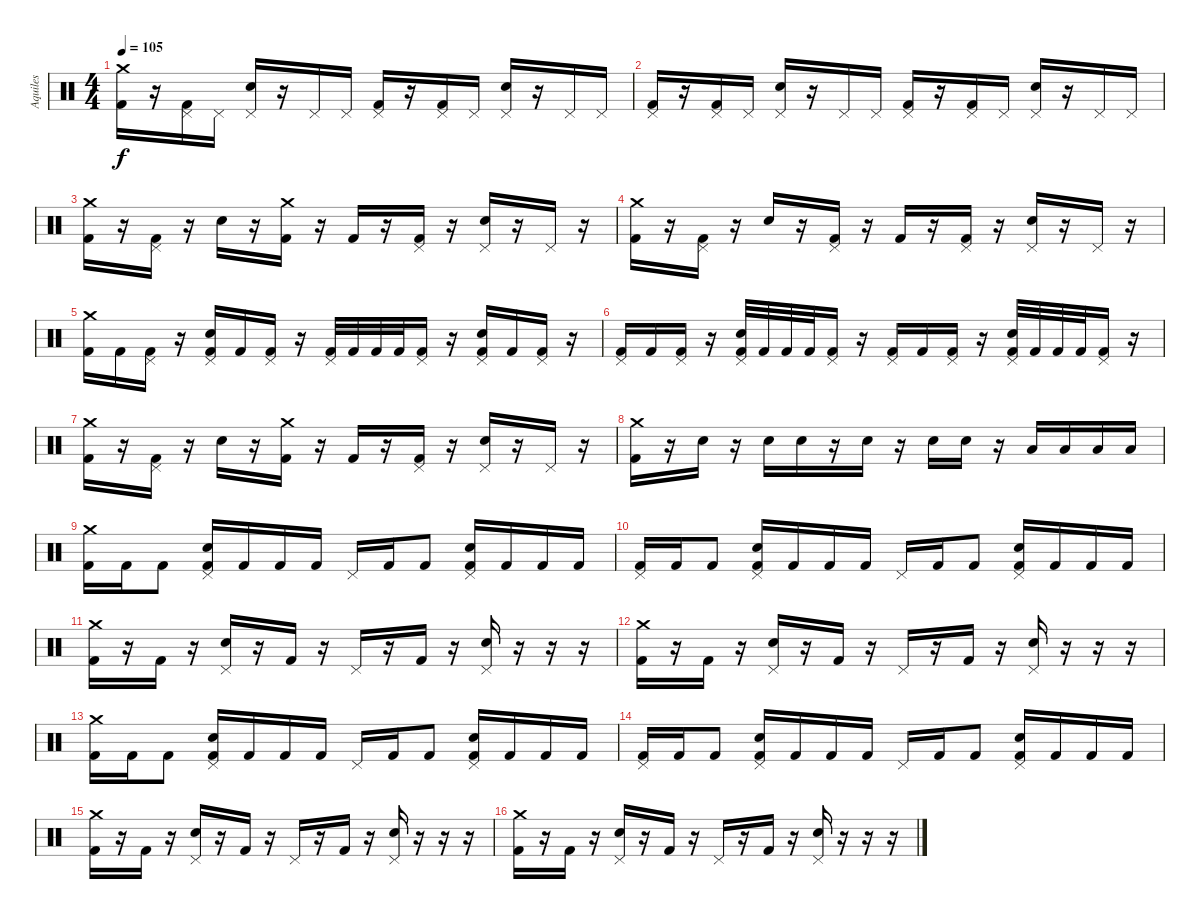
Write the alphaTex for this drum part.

\track ("Aquiles" "Aquiles") {instrument percussion}
\staff {score}
\articulation defaults
\ts (4 4)
\tempo 105
\clef neutral
\ks c
("Kick (hit) 2" "Crash medium (hit)").16{dy f} r.16 ("Kick (hit) 2" "Pedal Hi-Hat (hit)").16 "Pedal Hi-Hat (hit)".16 ("Pedal Hi-Hat (hit)" "Electric Snare (hit)").16 r.16 "Pedal Hi-Hat (hit)".16 "Pedal Hi-Hat (hit)".16 ("Kick (hit) 2" "Pedal Hi-Hat (hit)").16 r.16 ("Kick (hit) 2" "Pedal Hi-Hat (hit)").16 "Pedal Hi-Hat (hit)".16 ("Pedal Hi-Hat (hit)" "Electric Snare (hit)").16 r.16 "Pedal Hi-Hat (hit)".16 "Pedal Hi-Hat (hit)".16 |
("Kick (hit) 2" "Pedal Hi-Hat (hit)").16 r.16 ("Kick (hit) 2" "Pedal Hi-Hat (hit)").16 "Pedal Hi-Hat (hit)".16 ("Pedal Hi-Hat (hit)" "Electric Snare (hit)").16 r.16 "Pedal Hi-Hat (hit)".16 "Pedal Hi-Hat (hit)".16 ("Kick (hit) 2" "Pedal Hi-Hat (hit)").16 r.16 ("Kick (hit) 2" "Pedal Hi-Hat (hit)").16 "Pedal Hi-Hat (hit)".16 ("Pedal Hi-Hat (hit)" "Electric Snare (hit)").16 r.16 "Pedal Hi-Hat (hit)".16 "Pedal Hi-Hat (hit)".16 |
("Kick (hit) 2" "Crash medium (hit)").16 r.16 ("Kick (hit) 2" "Pedal Hi-Hat (hit)").16 r.16 "Electric Snare (hit)".16 r.16 ("Kick (hit) 2" "Crash medium (hit)").16 r.16 "Kick (hit) 2".16 r.16 ("Kick (hit) 2" "Pedal Hi-Hat (hit)").16 r.16 ("Pedal Hi-Hat (hit)" "Electric Snare (hit)").16 r.16 "Pedal Hi-Hat (hit)".16 r.16 |
("Kick (hit) 2" "Crash medium (hit)").16 r.16 ("Kick (hit) 2" "Pedal Hi-Hat (hit)").16 r.16 "Electric Snare (hit)".16 r.16 ("Kick (hit) 2" "Pedal Hi-Hat (hit)").16 r.16 "Kick (hit) 2".16 r.16 ("Kick (hit) 2" "Pedal Hi-Hat (hit)").16 r.16 ("Pedal Hi-Hat (hit)" "Electric Snare (hit)").16 r.16 "Pedal Hi-Hat (hit)".16 r.16 |
("Kick (hit) 2" "Crash medium (hit)").16 "Kick (hit) 2".16 ("Kick (hit) 2" "Pedal Hi-Hat (hit)").16 r.16 ("Kick (hit) 2" "Pedal Hi-Hat (hit)" "Electric Snare (hit)").16 "Kick (hit) 2".16 ("Kick (hit) 2" "Pedal Hi-Hat (hit)").16 r.16 ("Kick (hit) 2" "Pedal Hi-Hat (hit)").32 "Kick (hit) 2".32 "Kick (hit) 2".32 "Kick (hit) 2".32 ("Kick (hit) 2" "Pedal Hi-Hat (hit)").16 r.16 ("Kick (hit) 2" "Pedal Hi-Hat (hit)" "Electric Snare (hit)").16 "Kick (hit) 2".16 ("Kick (hit) 2" "Pedal Hi-Hat (hit)").16 r.16 |
("Kick (hit) 2" "Pedal Hi-Hat (hit)").16 "Kick (hit) 2".16 ("Kick (hit) 2" "Pedal Hi-Hat (hit)").16 r.16 ("Kick (hit) 2" "Pedal Hi-Hat (hit)" "Electric Snare (hit)").32 "Kick (hit) 2".32 "Kick (hit) 2".32 "Kick (hit) 2".32 ("Kick (hit) 2" "Pedal Hi-Hat (hit)").16 r.16 ("Kick (hit) 2" "Pedal Hi-Hat (hit)").16 "Kick (hit) 2".16 ("Kick (hit) 2" "Pedal Hi-Hat (hit)").16 r.16 ("Kick (hit) 2" "Pedal Hi-Hat (hit)" "Electric Snare (hit)").32 "Kick (hit) 2".32 "Kick (hit) 2".32 "Kick (hit) 2".32 ("Kick (hit) 2" "Pedal Hi-Hat (hit)").16 r.16 |
("Kick (hit) 2" "Crash medium (hit)").16 r.16 ("Kick (hit) 2" "Pedal Hi-Hat (hit)").16 r.16 "Electric Snare (hit)".16 r.16 ("Kick (hit) 2" "Crash medium (hit)").16 r.16 "Kick (hit) 2".16 r.16 ("Kick (hit) 2" "Pedal Hi-Hat (hit)").16 r.16 ("Pedal Hi-Hat (hit)" "Electric Snare (hit)").16 r.16 "Pedal Hi-Hat (hit)".16 r.16 |
("Kick (hit) 2" "Crash medium (hit)").16 r.16 "Electric Snare (hit)".16 r.16 "Electric Snare (hit)".16 "Electric Snare (hit)".16 r.16 "Electric Snare (hit)".16 r.16 "Electric Snare (hit)".16 "Electric Snare (hit)".16 r.16 "Low Tom (hit)".16 "Low Tom (hit)".16 "Low Floor Tom (hit)".16 "Low Floor Tom (hit)".16 |
("Kick (hit) 2" "Crash medium (hit)").16 "Kick (hit) 2".16 "Kick (hit) 2".8 ("Kick (hit) 2" "Pedal Hi-Hat (hit)" "Electric Snare (hit)").16 "Kick (hit) 2".16 "Kick (hit) 2".16 "Kick (hit) 2".16 "Pedal Hi-Hat (hit)".16 "Kick (hit) 2".16 "Kick (hit) 2".8 ("Kick (hit) 2" "Pedal Hi-Hat (hit)" "Electric Snare (hit)").16 "Kick (hit) 2".16 "Kick (hit) 2".16 "Kick (hit) 2".16 |
("Kick (hit) 2" "Pedal Hi-Hat (hit)").16 "Kick (hit) 2".16 "Kick (hit) 2".8 ("Kick (hit) 2" "Pedal Hi-Hat (hit)" "Electric Snare (hit)").16 "Kick (hit) 2".16 "Kick (hit) 2".16 "Kick (hit) 2".16 "Pedal Hi-Hat (hit)".16 "Kick (hit) 2".16 "Kick (hit) 2".8 ("Kick (hit) 2" "Pedal Hi-Hat (hit)" "Electric Snare (hit)").16 "Kick (hit) 2".16 "Kick (hit) 2".16 "Kick (hit) 2".16 |
("Kick (hit) 2" "Crash medium (hit)").16 r.16 "Kick (hit) 2".16 r.16 ("Pedal Hi-Hat (hit)" "Electric Snare (hit)").16 r.16 "Kick (hit) 2".16 r.16 "Pedal Hi-Hat (hit)".16 r.16 "Kick (hit) 2".16 r.16 ("Pedal Hi-Hat (hit)" "Electric Snare (hit)").16 r.16 r.16 r.16 |
("Kick (hit) 2" "Crash medium (hit)").16 r.16 "Kick (hit) 2".16 r.16 ("Pedal Hi-Hat (hit)" "Electric Snare (hit)").16 r.16 "Kick (hit) 2".16 r.16 "Pedal Hi-Hat (hit)".16 r.16 "Kick (hit) 2".16 r.16 ("Pedal Hi-Hat (hit)" "Electric Snare (hit)").16 r.16 r.16 r.16 |
("Kick (hit) 2" "Crash medium (hit)").16 "Kick (hit) 2".16 "Kick (hit) 2".8 ("Kick (hit) 2" "Pedal Hi-Hat (hit)" "Electric Snare (hit)").16 "Kick (hit) 2".16 "Kick (hit) 2".16 "Kick (hit) 2".16 "Pedal Hi-Hat (hit)".16 "Kick (hit) 2".16 "Kick (hit) 2".8 ("Kick (hit) 2" "Pedal Hi-Hat (hit)" "Electric Snare (hit)").16 "Kick (hit) 2".16 "Kick (hit) 2".16 "Kick (hit) 2".16 |
("Kick (hit) 2" "Pedal Hi-Hat (hit)").16 "Kick (hit) 2".16 "Kick (hit) 2".8 ("Kick (hit) 2" "Pedal Hi-Hat (hit)" "Electric Snare (hit)").16 "Kick (hit) 2".16 "Kick (hit) 2".16 "Kick (hit) 2".16 "Pedal Hi-Hat (hit)".16 "Kick (hit) 2".16 "Kick (hit) 2".8 ("Kick (hit) 2" "Pedal Hi-Hat (hit)" "Electric Snare (hit)").16 "Kick (hit) 2".16 "Kick (hit) 2".16 "Kick (hit) 2".16 |
("Kick (hit) 2" "Crash medium (hit)").16 r.16 "Kick (hit) 2".16 r.16 ("Pedal Hi-Hat (hit)" "Electric Snare (hit)").16 r.16 "Kick (hit) 2".16 r.16 "Pedal Hi-Hat (hit)".16 r.16 "Kick (hit) 2".16 r.16 ("Pedal Hi-Hat (hit)" "Electric Snare (hit)").16 r.16 r.16 r.16 |
("Kick (hit) 2" "Crash medium (hit)").16 r.16 "Kick (hit) 2".16 r.16 ("Pedal Hi-Hat (hit)" "Electric Snare (hit)").16 r.16 "Kick (hit) 2".16 r.16 "Pedal Hi-Hat (hit)".16 r.16 "Kick (hit) 2".16 r.16 ("Pedal Hi-Hat (hit)" "Electric Snare (hit)").16 r.16 r.16 r.16
